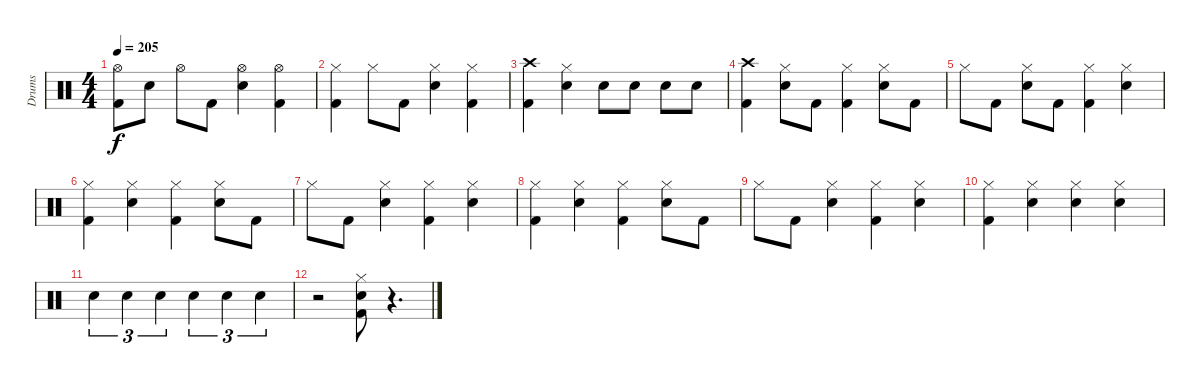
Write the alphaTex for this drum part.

\track ("Drums" "Drums") {instrument percussion}
\staff {score}
\articulation defaults
\ts (4 4)
\tempo 205
\clef neutral
\ks c
("Hi-Hat (open)" "Kick (hit) 2").8{dy f} "Electric Snare (hit)".8 "Hi-Hat (open)".8 "Kick (hit) 2".8 ("Hi-Hat (open)" "Electric Snare (hit)").4 ("Hi-Hat (open)" "Kick (hit) 2").4 |
("Hi-Hat (closed)" "Kick (hit) 2").4 "Hi-Hat (closed)".8 "Kick (hit) 2".8 ("Hi-Hat (closed)" "Electric Snare (hit)").4 ("Hi-Hat (closed)" "Kick (hit) 2").4 |
("Crash high (hit)" "Kick (hit) 2").4 ("Hi-Hat (closed)" "Electric Snare (hit)").4 "Electric Snare (hit)".8 "Electric Snare (hit)".8 "Electric Snare (hit)".8 "Electric Snare (hit)".8 |
("Crash high (hit)" "Kick (hit) 2").4 ("Hi-Hat (closed)" "Electric Snare (hit)").8 "Kick (hit) 2".8 ("Hi-Hat (closed)" "Kick (hit) 2").4 ("Hi-Hat (closed)" "Electric Snare (hit)").8 "Kick (hit) 2".8 |
"Hi-Hat (closed)".8 "Kick (hit) 2".8 ("Hi-Hat (closed)" "Electric Snare (hit)").8 "Kick (hit) 2".8 ("Hi-Hat (closed)" "Kick (hit) 2").4 ("Hi-Hat (closed)" "Electric Snare (hit)").4 |
("Hi-Hat (closed)" "Kick (hit) 2").4 ("Hi-Hat (closed)" "Electric Snare (hit)").4 ("Hi-Hat (closed)" "Kick (hit) 2").4 ("Hi-Hat (closed)" "Electric Snare (hit)").8 "Kick (hit) 2".8 |
"Hi-Hat (closed)".8 "Kick (hit) 2".8 ("Hi-Hat (closed)" "Electric Snare (hit)").4 ("Hi-Hat (closed)" "Kick (hit) 2").4 ("Hi-Hat (closed)" "Electric Snare (hit)").4 |
("Hi-Hat (closed)" "Kick (hit) 2").4 ("Hi-Hat (closed)" "Electric Snare (hit)").4 ("Hi-Hat (closed)" "Kick (hit) 2").4 ("Hi-Hat (closed)" "Electric Snare (hit)").8 "Kick (hit) 2".8 |
"Hi-Hat (closed)".8 "Kick (hit) 2".8 ("Hi-Hat (closed)" "Electric Snare (hit)").4 ("Hi-Hat (closed)" "Kick (hit) 2").4 ("Hi-Hat (closed)" "Electric Snare (hit)").4 |
("Hi-Hat (closed)" "Kick (hit) 2").4 ("Hi-Hat (closed)" "Electric Snare (hit)").4 ("Hi-Hat (closed)" "Electric Snare (hit)").4 ("Hi-Hat (closed)" "Electric Snare (hit)").4 |
"Electric Snare (hit)".4{tu (3 2)} "Electric Snare (hit)".4{tu (3 2)} "Electric Snare (hit)".4{tu (3 2)} "Electric Snare (hit)".4{tu (3 2)} "Electric Snare (hit)".4{tu (3 2)} "Electric Snare (hit)".4{tu (3 2)} |
r.2 ("Hi-Hat (closed)" "Electric Snare (hit)" "Kick (hit) 2").8 r.4{d}
